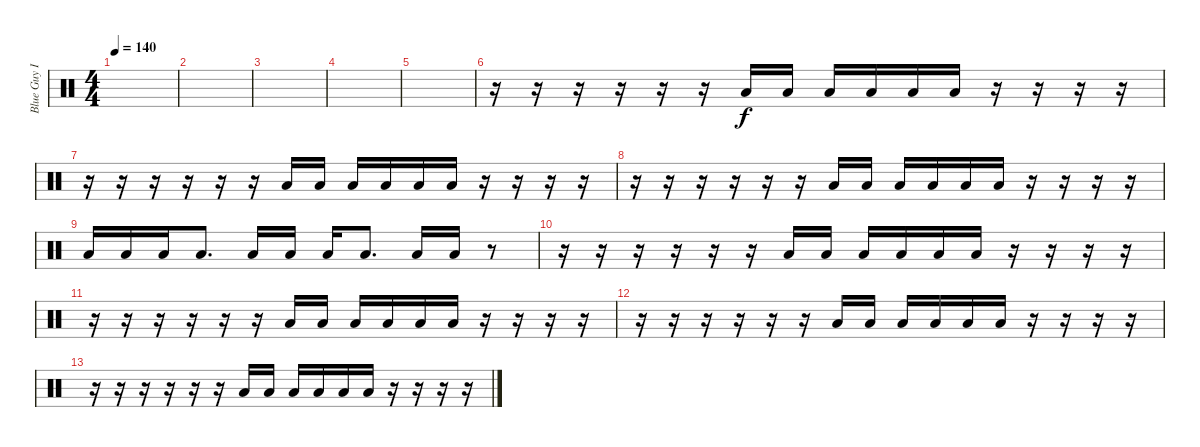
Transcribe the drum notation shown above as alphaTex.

\track ("Blue Guy II" "Blue Guy I") {instrument percussion}
\staff {score}
\articulation defaults
\ts (4 4)
\tempo 140
\clef neutral
\ks c
|
|
|
|
|
r.16 r.16 r.16 r.16 r.16 r.16 "Low Floor Tom (hit)".16 "Low Floor Tom (hit)".16 "Low Floor Tom (hit)".16 "Low Floor Tom (hit)".16 "Low Floor Tom (hit)".16 "Low Floor Tom (hit)".16 r.16 r.16 r.16 r.16 |
r.16 r.16 r.16 r.16 r.16 r.16 "Low Floor Tom (hit)".16 "Low Floor Tom (hit)".16 "Low Floor Tom (hit)".16 "Low Floor Tom (hit)".16 "Low Floor Tom (hit)".16 "Low Floor Tom (hit)".16 r.16 r.16 r.16 r.16 |
r.16 r.16 r.16 r.16 r.16 r.16 "Low Floor Tom (hit)".16 "Low Floor Tom (hit)".16 "Low Floor Tom (hit)".16 "Low Floor Tom (hit)".16 "Low Floor Tom (hit)".16 "Low Floor Tom (hit)".16 r.16 r.16 r.16 r.16 |
"Low Floor Tom (hit)".16 "Low Floor Tom (hit)".16 "Low Floor Tom (hit)".16 "Low Floor Tom (hit)".8{d} "Low Floor Tom (hit)".16 "Low Floor Tom (hit)".16 "Low Floor Tom (hit)".16 "Low Floor Tom (hit)".8{d} "Low Floor Tom (hit)".16 "Low Floor Tom (hit)".16 r.8 |
r.16 r.16 r.16 r.16 r.16 r.16 "Low Floor Tom (hit)".16 "Low Floor Tom (hit)".16 "Low Floor Tom (hit)".16 "Low Floor Tom (hit)".16 "Low Floor Tom (hit)".16 "Low Floor Tom (hit)".16 r.16 r.16 r.16 r.16 |
r.16 r.16 r.16 r.16 r.16 r.16 "Low Floor Tom (hit)".16 "Low Floor Tom (hit)".16 "Low Floor Tom (hit)".16 "Low Floor Tom (hit)".16 "Low Floor Tom (hit)".16 "Low Floor Tom (hit)".16 r.16 r.16 r.16 r.16 |
r.16 r.16 r.16 r.16 r.16 r.16 "Low Floor Tom (hit)".16 "Low Floor Tom (hit)".16 "Low Floor Tom (hit)".16 "Low Floor Tom (hit)".16 "Low Floor Tom (hit)".16 "Low Floor Tom (hit)".16 r.16 r.16 r.16 r.16 |
r.16 r.16 r.16 r.16 r.16 r.16 "Low Floor Tom (hit)".16 "Low Floor Tom (hit)".16 "Low Floor Tom (hit)".16 "Low Floor Tom (hit)".16 "Low Floor Tom (hit)".16 "Low Floor Tom (hit)".16 r.16 r.16 r.16 r.16
